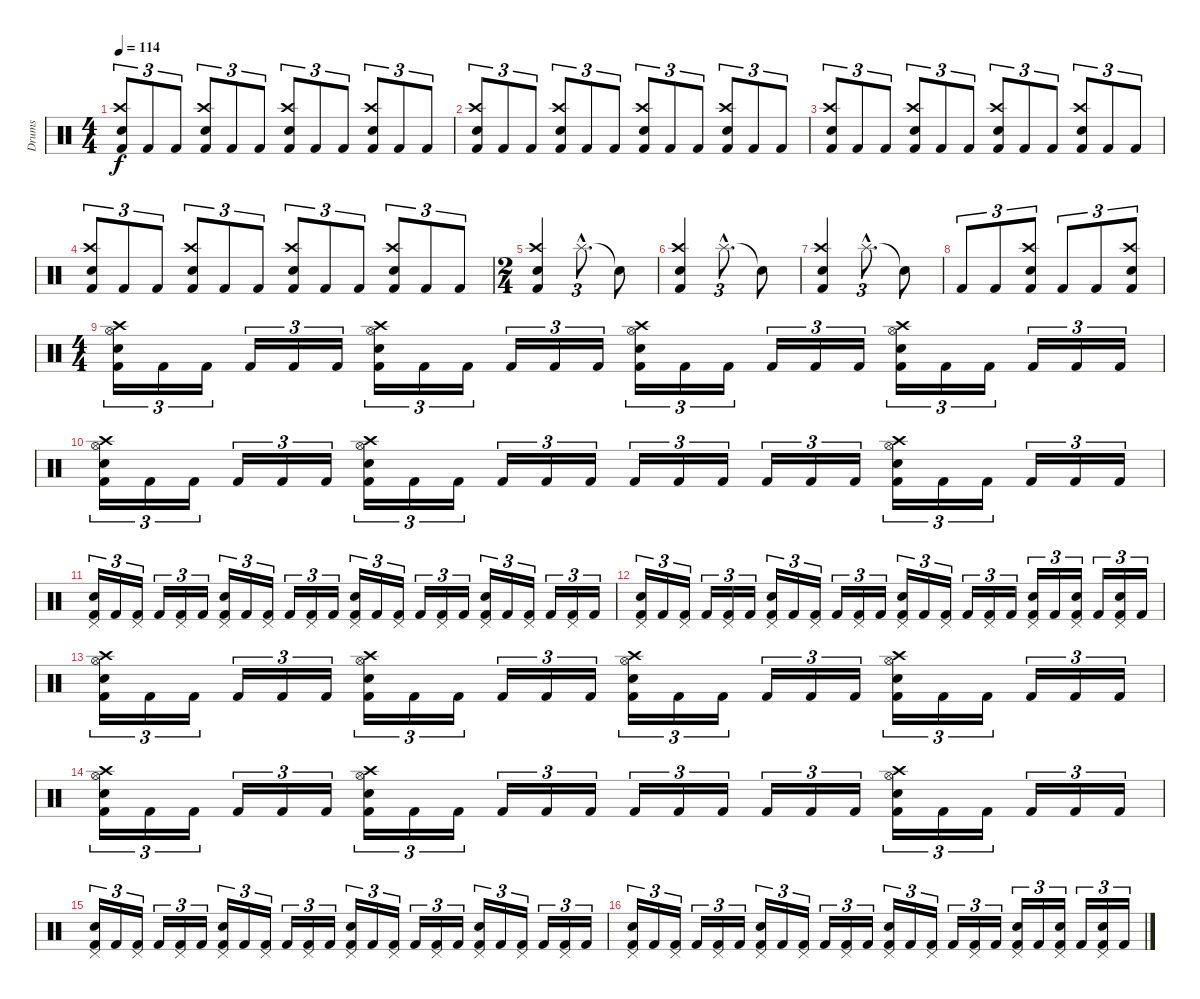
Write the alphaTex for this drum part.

\track ("Drums" "Drums") {instrument percussion}
\staff {score}
\articulation defaults
\ts (4 4)
\tempo 114
\clef neutral
\ks c
("Electric Snare (hit)" "Crash high (hit)" "Kick (hit) 2").8{tu (3 2) dy f} "Kick (hit) 2".8{tu (3 2)} "Kick (hit) 2".8{tu (3 2)} ("Electric Snare (hit)" "Crash high (hit)" "Kick (hit) 2").8{tu (3 2)} "Kick (hit) 2".8{tu (3 2)} "Kick (hit) 2".8{tu (3 2)} ("Electric Snare (hit)" "Crash high (hit)" "Kick (hit) 2").8{tu (3 2)} "Kick (hit) 2".8{tu (3 2)} "Kick (hit) 2".8{tu (3 2)} ("Electric Snare (hit)" "Crash high (hit)" "Kick (hit) 2").8{tu (3 2)} "Kick (hit) 2".8{tu (3 2)} "Kick (hit) 2".8{tu (3 2)} |
("Electric Snare (hit)" "Crash high (hit)" "Kick (hit) 2").8{tu (3 2)} "Kick (hit) 2".8{tu (3 2)} "Kick (hit) 2".8{tu (3 2)} ("Electric Snare (hit)" "Crash high (hit)" "Kick (hit) 2").8{tu (3 2)} "Kick (hit) 2".8{tu (3 2)} "Kick (hit) 2".8{tu (3 2)} ("Electric Snare (hit)" "Crash high (hit)" "Kick (hit) 2").8{tu (3 2)} "Kick (hit) 2".8{tu (3 2)} "Kick (hit) 2".8{tu (3 2)} ("Electric Snare (hit)" "Crash high (hit)" "Kick (hit) 2").8{tu (3 2)} "Kick (hit) 2".8{tu (3 2)} "Kick (hit) 2".8{tu (3 2)} |
("Electric Snare (hit)" "Crash high (hit)" "Kick (hit) 2").8{tu (3 2)} "Kick (hit) 2".8{tu (3 2)} "Kick (hit) 2".8{tu (3 2)} ("Electric Snare (hit)" "Crash high (hit)" "Kick (hit) 2").8{tu (3 2)} "Kick (hit) 2".8{tu (3 2)} "Kick (hit) 2".8{tu (3 2)} ("Electric Snare (hit)" "Crash high (hit)" "Kick (hit) 2").8{tu (3 2)} "Kick (hit) 2".8{tu (3 2)} "Kick (hit) 2".8{tu (3 2)} ("Electric Snare (hit)" "Crash high (hit)" "Kick (hit) 2").8{tu (3 2)} "Kick (hit) 2".8{tu (3 2)} "Kick (hit) 2".8{tu (3 2)} |
("Electric Snare (hit)" "Crash high (hit)" "Kick (hit) 2").8{tu (3 2)} "Kick (hit) 2".8{tu (3 2)} "Kick (hit) 2".8{tu (3 2)} ("Electric Snare (hit)" "Crash high (hit)" "Kick (hit) 2").8{tu (3 2)} "Kick (hit) 2".8{tu (3 2)} "Kick (hit) 2".8{tu (3 2)} ("Electric Snare (hit)" "Crash high (hit)" "Kick (hit) 2").8{tu (3 2)} "Kick (hit) 2".8{tu (3 2)} "Kick (hit) 2".8{tu (3 2)} ("Electric Snare (hit)" "Crash high (hit)" "Kick (hit) 2").8{tu (3 2)} "Kick (hit) 2".8{tu (3 2)} "Kick (hit) 2".8{tu (3 2)} |
\ts (2 4)
("Electric Snare (hit)" "Crash high (hit)" "Kick (hit) 2").4 "Splash (hit)"{hac}.8{d tu (3 2)} "Snare (hit)"{t}.8 |
("Electric Snare (hit)" "Crash high (hit)" "Kick (hit) 2").4 "Splash (hit)"{hac}.8{d tu (3 2)} "Snare (hit)"{t}.8 |
("Electric Snare (hit)" "Crash high (hit)" "Kick (hit) 2").4 "Splash (hit)"{hac}.8{d tu (3 2)} "Snare (hit)"{t}.8 |
"Kick (hit) 2".8{tu (3 2)} "Kick (hit) 2".8{tu (3 2)} ("Electric Snare (hit)" "Crash high (hit)" "Kick (hit) 2").8{tu (3 2)} "Kick (hit) 2".8{tu (3 2)} "Kick (hit) 2".8{tu (3 2)} ("Electric Snare (hit)" "Crash high (hit)" "Kick (hit) 2").8{tu (3 2)} |
\ts (4 4)
("Hi-Hat (open)" "Electric Snare (hit)" "Crash high (hit)" "Kick (hit) 2").16{tu (3 2)} "Kick (hit) 2".16{tu (3 2)} "Kick (hit) 2".16{tu (3 2)} "Kick (hit) 2".16{tu (3 2)} "Kick (hit) 2".16{tu (3 2)} "Kick (hit) 2".16{tu (3 2)} ("Hi-Hat (open)" "Electric Snare (hit)" "Crash high (hit)" "Kick (hit) 2").16{tu (3 2)} "Kick (hit) 2".16{tu (3 2)} "Kick (hit) 2".16{tu (3 2)} "Kick (hit) 2".16{tu (3 2)} "Kick (hit) 2".16{tu (3 2)} "Kick (hit) 2".16{tu (3 2)} ("Hi-Hat (open)" "Electric Snare (hit)" "Crash high (hit)" "Kick (hit) 2").16{tu (3 2)} "Kick (hit) 2".16{tu (3 2)} "Kick (hit) 2".16{tu (3 2)} "Kick (hit) 2".16{tu (3 2)} "Kick (hit) 2".16{tu (3 2)} "Kick (hit) 2".16{tu (3 2)} ("Hi-Hat (open)" "Electric Snare (hit)" "Crash high (hit)" "Kick (hit) 2").16{tu (3 2)} "Kick (hit) 2".16{tu (3 2)} "Kick (hit) 2".16{tu (3 2)} "Kick (hit) 2".16{tu (3 2)} "Kick (hit) 2".16{tu (3 2)} "Kick (hit) 2".16{tu (3 2)} |
("Hi-Hat (open)" "Electric Snare (hit)" "Crash high (hit)" "Kick (hit) 2").16{tu (3 2)} "Kick (hit) 2".16{tu (3 2)} "Kick (hit) 2".16{tu (3 2)} "Kick (hit) 2".16{tu (3 2)} "Kick (hit) 2".16{tu (3 2)} "Kick (hit) 2".16{tu (3 2)} ("Hi-Hat (open)" "Electric Snare (hit)" "Crash high (hit)" "Kick (hit) 2").16{tu (3 2)} "Kick (hit) 2".16{tu (3 2)} "Kick (hit) 2".16{tu (3 2)} "Kick (hit) 2".16{tu (3 2)} "Kick (hit) 2".16{tu (3 2)} "Kick (hit) 2".16{tu (3 2)} "Kick (hit) 2".16{tu (3 2)} "Kick (hit) 2".16{tu (3 2)} "Kick (hit) 2".16{tu (3 2)} "Kick (hit) 2".16{tu (3 2)} "Kick (hit) 2".16{tu (3 2)} "Kick (hit) 2".16{tu (3 2)} ("Hi-Hat (open)" "Electric Snare (hit)" "Crash high (hit)" "Kick (hit) 2").16{tu (3 2)} "Kick (hit) 2".16{tu (3 2)} "Kick (hit) 2".16{tu (3 2)} "Kick (hit) 2".16{tu (3 2)} "Kick (hit) 2".16{tu (3 2)} "Kick (hit) 2".16{tu (3 2)} |
("Pedal Hi-Hat (hit)" "Electric Snare (hit)" "Kick (hit) 2").16{tu (3 2)} "Kick (hit) 2".16{tu (3 2)} ("Pedal Hi-Hat (hit)" "Kick (hit) 2").16{tu (3 2)} "Kick (hit) 2".16{tu (3 2)} ("Pedal Hi-Hat (hit)" "Kick (hit) 2").16{tu (3 2)} "Kick (hit) 2".16{tu (3 2)} ("Pedal Hi-Hat (hit)" "Electric Snare (hit)" "Kick (hit) 2").16{tu (3 2)} "Kick (hit) 2".16{tu (3 2)} ("Pedal Hi-Hat (hit)" "Kick (hit) 2").16{tu (3 2)} "Kick (hit) 2".16{tu (3 2)} ("Pedal Hi-Hat (hit)" "Kick (hit) 2").16{tu (3 2)} "Kick (hit) 2".16{tu (3 2)} ("Pedal Hi-Hat (hit)" "Electric Snare (hit)" "Kick (hit) 2").16{tu (3 2)} "Kick (hit) 2".16{tu (3 2)} ("Pedal Hi-Hat (hit)" "Kick (hit) 2").16{tu (3 2)} "Kick (hit) 2".16{tu (3 2)} ("Pedal Hi-Hat (hit)" "Kick (hit) 2").16{tu (3 2)} "Kick (hit) 2".16{tu (3 2)} ("Pedal Hi-Hat (hit)" "Electric Snare (hit)" "Kick (hit) 2").16{tu (3 2)} "Kick (hit) 2".16{tu (3 2)} ("Pedal Hi-Hat (hit)" "Kick (hit) 2").16{tu (3 2)} "Kick (hit) 2".16{tu (3 2)} ("Pedal Hi-Hat (hit)" "Kick (hit) 2").16{tu (3 2)} "Kick (hit) 2".16{tu (3 2)} |
("Pedal Hi-Hat (hit)" "Electric Snare (hit)" "Kick (hit) 2").16{tu (3 2)} "Kick (hit) 2".16{tu (3 2)} ("Pedal Hi-Hat (hit)" "Kick (hit) 2").16{tu (3 2)} "Kick (hit) 2".16{tu (3 2)} ("Pedal Hi-Hat (hit)" "Kick (hit) 2").16{tu (3 2)} "Kick (hit) 2".16{tu (3 2)} ("Pedal Hi-Hat (hit)" "Electric Snare (hit)" "Kick (hit) 2").16{tu (3 2)} "Kick (hit) 2".16{tu (3 2)} ("Pedal Hi-Hat (hit)" "Kick (hit) 2").16{tu (3 2)} "Kick (hit) 2".16{tu (3 2)} ("Pedal Hi-Hat (hit)" "Kick (hit) 2").16{tu (3 2)} "Kick (hit) 2".16{tu (3 2)} ("Pedal Hi-Hat (hit)" "Electric Snare (hit)" "Kick (hit) 2").16{tu (3 2)} "Kick (hit) 2".16{tu (3 2)} ("Pedal Hi-Hat (hit)" "Kick (hit) 2").16{tu (3 2)} "Kick (hit) 2".16{tu (3 2)} ("Pedal Hi-Hat (hit)" "Kick (hit) 2").16{tu (3 2)} "Kick (hit) 2".16{tu (3 2)} ("Pedal Hi-Hat (hit)" "Electric Snare (hit)" "Kick (hit) 2").16{tu (3 2)} "Kick (hit) 2".16{tu (3 2)} ("Pedal Hi-Hat (hit)" "Electric Snare (hit)" "Kick (hit) 2").16{tu (3 2)} "Kick (hit) 2".16{tu (3 2)} ("Pedal Hi-Hat (hit)" "Electric Snare (hit)" "Kick (hit) 2").16{tu (3 2)} "Kick (hit) 2".16{tu (3 2)} |
("Hi-Hat (open)" "Electric Snare (hit)" "Crash high (hit)" "Kick (hit) 2").16{tu (3 2)} "Kick (hit) 2".16{tu (3 2)} "Kick (hit) 2".16{tu (3 2)} "Kick (hit) 2".16{tu (3 2)} "Kick (hit) 2".16{tu (3 2)} "Kick (hit) 2".16{tu (3 2)} ("Hi-Hat (open)" "Electric Snare (hit)" "Crash high (hit)" "Kick (hit) 2").16{tu (3 2)} "Kick (hit) 2".16{tu (3 2)} "Kick (hit) 2".16{tu (3 2)} "Kick (hit) 2".16{tu (3 2)} "Kick (hit) 2".16{tu (3 2)} "Kick (hit) 2".16{tu (3 2)} ("Hi-Hat (open)" "Electric Snare (hit)" "Crash high (hit)" "Kick (hit) 2").16{tu (3 2)} "Kick (hit) 2".16{tu (3 2)} "Kick (hit) 2".16{tu (3 2)} "Kick (hit) 2".16{tu (3 2)} "Kick (hit) 2".16{tu (3 2)} "Kick (hit) 2".16{tu (3 2)} ("Hi-Hat (open)" "Electric Snare (hit)" "Crash high (hit)" "Kick (hit) 2").16{tu (3 2)} "Kick (hit) 2".16{tu (3 2)} "Kick (hit) 2".16{tu (3 2)} "Kick (hit) 2".16{tu (3 2)} "Kick (hit) 2".16{tu (3 2)} "Kick (hit) 2".16{tu (3 2)} |
("Hi-Hat (open)" "Electric Snare (hit)" "Crash high (hit)" "Kick (hit) 2").16{tu (3 2)} "Kick (hit) 2".16{tu (3 2)} "Kick (hit) 2".16{tu (3 2)} "Kick (hit) 2".16{tu (3 2)} "Kick (hit) 2".16{tu (3 2)} "Kick (hit) 2".16{tu (3 2)} ("Hi-Hat (open)" "Electric Snare (hit)" "Crash high (hit)" "Kick (hit) 2").16{tu (3 2)} "Kick (hit) 2".16{tu (3 2)} "Kick (hit) 2".16{tu (3 2)} "Kick (hit) 2".16{tu (3 2)} "Kick (hit) 2".16{tu (3 2)} "Kick (hit) 2".16{tu (3 2)} "Kick (hit) 2".16{tu (3 2)} "Kick (hit) 2".16{tu (3 2)} "Kick (hit) 2".16{tu (3 2)} "Kick (hit) 2".16{tu (3 2)} "Kick (hit) 2".16{tu (3 2)} "Kick (hit) 2".16{tu (3 2)} ("Hi-Hat (open)" "Electric Snare (hit)" "Crash high (hit)" "Kick (hit) 2").16{tu (3 2)} "Kick (hit) 2".16{tu (3 2)} "Kick (hit) 2".16{tu (3 2)} "Kick (hit) 2".16{tu (3 2)} "Kick (hit) 2".16{tu (3 2)} "Kick (hit) 2".16{tu (3 2)} |
("Pedal Hi-Hat (hit)" "Electric Snare (hit)" "Kick (hit) 2").16{tu (3 2)} "Kick (hit) 2".16{tu (3 2)} ("Pedal Hi-Hat (hit)" "Kick (hit) 2").16{tu (3 2)} "Kick (hit) 2".16{tu (3 2)} ("Pedal Hi-Hat (hit)" "Kick (hit) 2").16{tu (3 2)} "Kick (hit) 2".16{tu (3 2)} ("Pedal Hi-Hat (hit)" "Electric Snare (hit)" "Kick (hit) 2").16{tu (3 2)} "Kick (hit) 2".16{tu (3 2)} ("Pedal Hi-Hat (hit)" "Kick (hit) 2").16{tu (3 2)} "Kick (hit) 2".16{tu (3 2)} ("Pedal Hi-Hat (hit)" "Kick (hit) 2").16{tu (3 2)} "Kick (hit) 2".16{tu (3 2)} ("Pedal Hi-Hat (hit)" "Electric Snare (hit)" "Kick (hit) 2").16{tu (3 2)} "Kick (hit) 2".16{tu (3 2)} ("Pedal Hi-Hat (hit)" "Kick (hit) 2").16{tu (3 2)} "Kick (hit) 2".16{tu (3 2)} ("Pedal Hi-Hat (hit)" "Kick (hit) 2").16{tu (3 2)} "Kick (hit) 2".16{tu (3 2)} ("Pedal Hi-Hat (hit)" "Electric Snare (hit)" "Kick (hit) 2").16{tu (3 2)} "Kick (hit) 2".16{tu (3 2)} ("Pedal Hi-Hat (hit)" "Kick (hit) 2").16{tu (3 2)} "Kick (hit) 2".16{tu (3 2)} ("Pedal Hi-Hat (hit)" "Kick (hit) 2").16{tu (3 2)} "Kick (hit) 2".16{tu (3 2)} |
("Pedal Hi-Hat (hit)" "Electric Snare (hit)" "Kick (hit) 2").16{tu (3 2)} "Kick (hit) 2".16{tu (3 2)} ("Pedal Hi-Hat (hit)" "Kick (hit) 2").16{tu (3 2)} "Kick (hit) 2".16{tu (3 2)} ("Pedal Hi-Hat (hit)" "Kick (hit) 2").16{tu (3 2)} "Kick (hit) 2".16{tu (3 2)} ("Pedal Hi-Hat (hit)" "Electric Snare (hit)" "Kick (hit) 2").16{tu (3 2)} "Kick (hit) 2".16{tu (3 2)} ("Pedal Hi-Hat (hit)" "Kick (hit) 2").16{tu (3 2)} "Kick (hit) 2".16{tu (3 2)} ("Pedal Hi-Hat (hit)" "Kick (hit) 2").16{tu (3 2)} "Kick (hit) 2".16{tu (3 2)} ("Pedal Hi-Hat (hit)" "Electric Snare (hit)" "Kick (hit) 2").16{tu (3 2)} "Kick (hit) 2".16{tu (3 2)} ("Pedal Hi-Hat (hit)" "Kick (hit) 2").16{tu (3 2)} "Kick (hit) 2".16{tu (3 2)} ("Pedal Hi-Hat (hit)" "Kick (hit) 2").16{tu (3 2)} "Kick (hit) 2".16{tu (3 2)} ("Pedal Hi-Hat (hit)" "Electric Snare (hit)" "Kick (hit) 2").16{tu (3 2)} "Kick (hit) 2".16{tu (3 2)} ("Pedal Hi-Hat (hit)" "Electric Snare (hit)" "Kick (hit) 2").16{tu (3 2)} "Kick (hit) 2".16{tu (3 2)} ("Pedal Hi-Hat (hit)" "Electric Snare (hit)" "Kick (hit) 2").16{tu (3 2)} "Kick (hit) 2".16{tu (3 2)}
